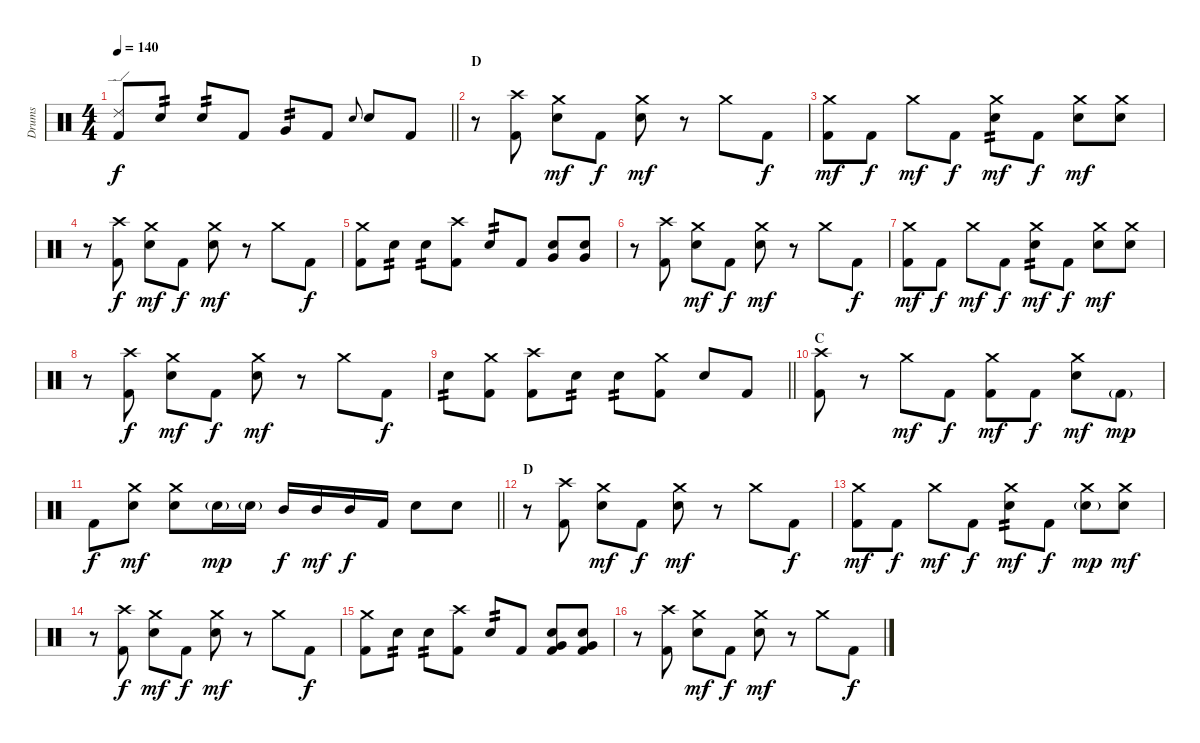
\track ("Drums" "Drums") {instrument percussion}
\staff {score}
\articulation defaults
\ts (4 4)
\tempo 140
\clef neutral
\barLineRight lightlight
\ks c
("Ride (edge) 2" "Kick (hit) 2").8{dy f} "Snare (hit) 2".8{tp 2} "Snare (hit) 2".8{tp 2} "Kick (hit) 2".8 "Very Low Tom (hit)".8{tp 2} "Kick (hit) 2".8 "Snare (hit) 2".8{gr onbeat} "Snare (hit) 2".8 "Kick (hit) 2".8 |
\section ("" "D")
r.8 ("Crash high (hit)" "Kick (hit) 2").8 ("Crash medium (hit)" "Snare (hit) 2").8{dy mf} "Kick (hit) 2".8{dy f} ("Crash medium (hit)" "Snare (hit) 2").8{dy mf} r.8 "Crash medium (hit)".8 "Kick (hit) 2".8{dy f} |
("Crash medium (hit)" "Kick (hit) 2").8{dy mf} "Kick (hit) 2".8{dy f} "Crash medium (hit)".8{dy mf} "Kick (hit) 2".8{dy f} ("Crash medium (hit)" "Snare (hit) 2").8{tp 2 dy mf} "Kick (hit) 2".8{dy f} ("Crash medium (hit)" "Snare (hit) 2").8{dy mf} ("Crash medium (hit)" "Snare (hit) 2").8 |
r.8 ("Crash high (hit)" "Kick (hit) 2").8{dy f} ("Crash medium (hit)" "Snare (hit) 2").8{dy mf} "Kick (hit) 2".8{dy f} ("Crash medium (hit)" "Snare (hit) 2").8{dy mf} r.8 "Crash medium (hit)".8 "Kick (hit) 2".8{dy f} |
("Crash medium (hit)" "Kick (hit) 2").8 "Snare (hit) 2".8{tp 2} "Snare (hit) 2".8{tp 2} ("Crash high (hit)" "Kick (hit) 2").8 "Snare (hit) 2".8{tp 2} "Kick (hit) 2".8 ("Snare (hit) 2" "Very Low Tom (hit)").8{bu 60} ("Snare (hit) 2" "Very Low Tom (hit)").8{bu 60} |
r.8 ("Crash high (hit)" "Kick (hit) 2").8 ("Crash medium (hit)" "Snare (hit) 2").8{dy mf} "Kick (hit) 2".8{dy f} ("Crash medium (hit)" "Snare (hit) 2").8{dy mf} r.8 "Crash medium (hit)".8 "Kick (hit) 2".8{dy f} |
("Crash medium (hit)" "Kick (hit) 2").8{dy mf} "Kick (hit) 2".8{dy f} "Crash medium (hit)".8{dy mf} "Kick (hit) 2".8{dy f} ("Crash medium (hit)" "Snare (hit) 2").8{tp 2 dy mf} "Kick (hit) 2".8{dy f} ("Crash medium (hit)" "Snare (hit) 2").8{dy mf} ("Crash medium (hit)" "Snare (hit) 2").8 |
r.8 ("Crash high (hit)" "Kick (hit) 2").8{dy f} ("Crash medium (hit)" "Snare (hit) 2").8{dy mf} "Kick (hit) 2".8{dy f} ("Crash medium (hit)" "Snare (hit) 2").8{dy mf} r.8 "Crash medium (hit)".8 "Kick (hit) 2".8{dy f} |
\barLineRight lightlight "Snare (hit) 2".8{tp 2}
("Crash medium (hit)" "Kick (hit) 2").8 ("Crash high (hit)" "Kick (hit) 2").8 "Snare (hit) 2".8{tp 2} "Snare (hit) 2".8{tp 2} ("Crash medium (hit)" "Kick (hit) 2").8 "Snare (hit) 2".8 "Kick (hit) 2".8 |
\section ("" "C")
("Crash high (hit)" "Kick (hit) 2").8 r.8 "Crash medium (hit)".8{dy mf} "Kick (hit) 2".8{dy f} ("Crash medium (hit)" "Kick (hit) 2").8{dy mf} "Kick (hit) 2".8{dy f} ("Crash medium (hit)" "Snare (hit) 2").8{dy mf} "Kick (hit) 2"{g}.8{dy mp} |
\barLineRight lightlight "Kick (hit) 2".8{dy f}
("Crash medium (hit)" "Snare (hit) 2").8{dy mf} ("Crash medium (hit)" "Snare (hit) 2").8 "Snare (hit) 2"{g}.16{dy mp} "Snare (hit) 2"{g}.16 "Mid Tom (hit)".16{dy f} "Mid Tom (hit)".16{dy mf} "Mid Tom (hit)".16{dy f} "Kick (hit) 2".16 "Snare (hit) 2".8 "Snare (hit) 2".8 |
\section ("" "D")
r.8 ("Crash high (hit)" "Kick (hit) 2").8 ("Crash medium (hit)" "Snare (hit) 2").8{dy mf} "Kick (hit) 2".8{dy f} ("Crash medium (hit)" "Snare (hit) 2").8{dy mf} r.8 "Crash medium (hit)".8 "Kick (hit) 2".8{dy f} |
("Crash medium (hit)" "Kick (hit) 2").8{dy mf} "Kick (hit) 2".8{dy f} "Crash medium (hit)".8{dy mf} "Kick (hit) 2".8{dy f} ("Crash medium (hit)" "Snare (hit) 2").8{tp 2 dy mf} "Kick (hit) 2".8{dy f} ("Crash medium (hit)" "Snare (hit) 2"{g}).8{dy mp} ("Crash medium (hit)" "Snare (hit) 2").8{dy mf} |
r.8 ("Crash high (hit)" "Kick (hit) 2").8{dy f} ("Crash medium (hit)" "Snare (hit) 2").8{dy mf} "Kick (hit) 2".8{dy f} ("Crash medium (hit)" "Snare (hit) 2").8{dy mf} r.8 "Crash medium (hit)".8 "Kick (hit) 2".8{dy f} |
("Crash medium (hit)" "Kick (hit) 2").8 "Snare (hit) 2".8{tp 2} "Snare (hit) 2".8{tp 2} ("Crash high (hit)" "Kick (hit) 2").8 "Snare (hit) 2".8{tp 2} "Kick (hit) 2".8 ("Snare (hit) 2" "Very Low Tom (hit)" "Kick (hit) 2").8{bu 60} ("Snare (hit) 2" "Very Low Tom (hit)" "Kick (hit) 2").8{bu 60} |
r.8 ("Crash high (hit)" "Kick (hit) 2").8 ("Crash medium (hit)" "Snare (hit) 2").8{dy mf} "Kick (hit) 2".8{dy f} ("Crash medium (hit)" "Snare (hit) 2").8{dy mf} r.8 "Crash medium (hit)".8 "Kick (hit) 2".8{dy f}
